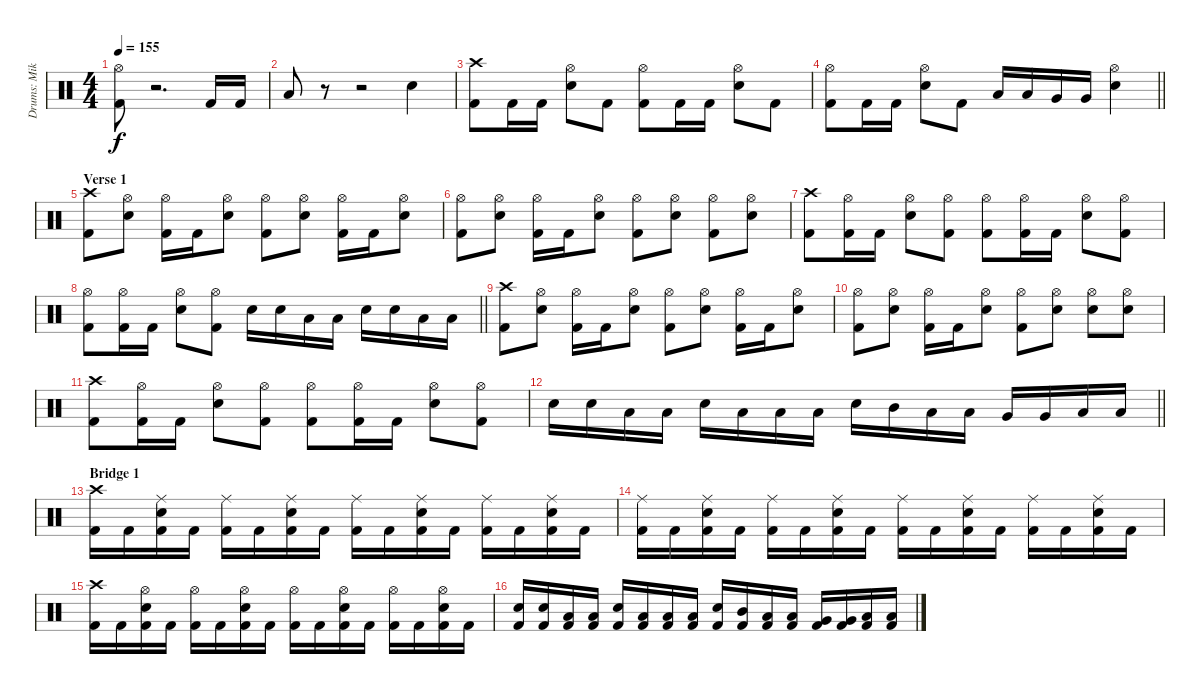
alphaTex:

\track ("Drums: Mikko Korsbäck" "Drums: Mik") {instrument percussion}
\staff {score}
\articulation defaults
\ts (4 4)
\tempo 155
\clef neutral
\ks aminor
("Hi-Hat (open)" "Kick (hit) 2").8{dy f} r.2{d} "Kick (hit) 2".16 "Kick (hit) 2".16 |
"Low Floor Tom (hit)".8 r.8 r.2 "Electric Snare (hit)".4 |
("Crash high (hit)" "Kick (hit) 2").8 "Kick (hit) 2".16 "Kick (hit) 2".16 ("Hi-Hat (open)" "Electric Snare (hit)").8 "Kick (hit) 2".8 ("Hi-Hat (open)" "Kick (hit) 2").8 "Kick (hit) 2".16 "Kick (hit) 2".16 ("Hi-Hat (open)" "Electric Snare (hit)").8 "Kick (hit) 2".8 |
\barLineRight lightlight
("Hi-Hat (open)" "Kick (hit) 2").8 "Kick (hit) 2".16 "Kick (hit) 2".16 ("Hi-Hat (open)" "Electric Snare (hit)").8 "Kick (hit) 2".8 "Low Tom (hit)".16 "Low Tom (hit)".16 "Very Low Tom (hit)".16 "Very Low Tom (hit)".16 ("Hi-Hat (open)" "Electric Snare (hit)").4 |
\section ("" "Verse 1")
("Crash high (hit)" "Kick (hit) 2").8 ("Hi-Hat (open)" "Electric Snare (hit)").8 ("Hi-Hat (open)" "Kick (hit) 2").16 "Kick (hit) 2".16 ("Hi-Hat (open)" "Electric Snare (hit)").8 ("Hi-Hat (open)" "Kick (hit) 2").8 ("Hi-Hat (open)" "Electric Snare (hit)").8 ("Hi-Hat (open)" "Kick (hit) 2").16 "Kick (hit) 2".16 ("Hi-Hat (open)" "Electric Snare (hit)").8 |
("Hi-Hat (open)" "Kick (hit) 2").8 ("Hi-Hat (open)" "Electric Snare (hit)").8 ("Hi-Hat (open)" "Kick (hit) 2").16 "Kick (hit) 2".16 ("Hi-Hat (open)" "Electric Snare (hit)").8 ("Hi-Hat (open)" "Kick (hit) 2").8 ("Hi-Hat (open)" "Electric Snare (hit)").8 ("Hi-Hat (open)" "Kick (hit) 2").8 ("Hi-Hat (open)" "Electric Snare (hit)").8 |
("Crash high (hit)" "Kick (hit) 2").8 ("Hi-Hat (open)" "Kick (hit) 2").16 "Kick (hit) 2".16 ("Hi-Hat (open)" "Electric Snare (hit)").8 ("Hi-Hat (open)" "Kick (hit) 2").8 ("Hi-Hat (open)" "Kick (hit) 2").8 ("Hi-Hat (open)" "Kick (hit) 2").16 "Kick (hit) 2".16 ("Hi-Hat (open)" "Electric Snare (hit)").8 ("Hi-Hat (open)" "Kick (hit) 2").8 |
\barLineRight lightlight
("Hi-Hat (open)" "Kick (hit) 2").8 ("Hi-Hat (open)" "Kick (hit) 2").16 "Kick (hit) 2".16 ("Hi-Hat (open)" "Electric Snare (hit)").8 ("Hi-Hat (open)" "Kick (hit) 2").8 "Electric Snare (hit)".16 "Electric Snare (hit)".16 "Low Tom (hit)".16 "Low Tom (hit)".16 "Electric Snare (hit)".16 "Electric Snare (hit)".16 "Low Tom (hit)".16 "Low Tom (hit)".16 |
("Crash high (hit)" "Kick (hit) 2").8 ("Hi-Hat (open)" "Electric Snare (hit)").8 ("Hi-Hat (open)" "Kick (hit) 2").16 "Kick (hit) 2".16 ("Hi-Hat (open)" "Electric Snare (hit)").8 ("Hi-Hat (open)" "Kick (hit) 2").8 ("Hi-Hat (open)" "Electric Snare (hit)").8 ("Hi-Hat (open)" "Kick (hit) 2").16 "Kick (hit) 2".16 ("Hi-Hat (open)" "Electric Snare (hit)").8 |
("Hi-Hat (open)" "Kick (hit) 2").8 ("Hi-Hat (open)" "Electric Snare (hit)").8 ("Hi-Hat (open)" "Kick (hit) 2").16 "Kick (hit) 2".16 ("Hi-Hat (open)" "Electric Snare (hit)").8 ("Hi-Hat (open)" "Kick (hit) 2").8 ("Hi-Hat (open)" "Electric Snare (hit)").8 ("Hi-Hat (open)" "Electric Snare (hit)").8 ("Hi-Hat (open)" "Electric Snare (hit)").8 |
("Crash high (hit)" "Kick (hit) 2").8 ("Hi-Hat (open)" "Kick (hit) 2").16 "Kick (hit) 2".16 ("Hi-Hat (open)" "Electric Snare (hit)").8 ("Hi-Hat (open)" "Kick (hit) 2").8 ("Hi-Hat (open)" "Kick (hit) 2").8 ("Hi-Hat (open)" "Kick (hit) 2").16 "Kick (hit) 2".16 ("Hi-Hat (open)" "Electric Snare (hit)").8 ("Hi-Hat (open)" "Kick (hit) 2").8 |
\barLineRight lightlight "Electric Snare (hit)".16 "Electric Snare (hit)".16 "Low Tom (hit)".16 "Low Tom (hit)".16 "Electric Snare (hit)".16 "Low Tom (hit)".16 "Low Tom (hit)".16 "Low Tom (hit)".16 "Electric Snare (hit)".16 "Mid Tom (hit)".16 "Low Tom (hit)".16 "Low Tom (hit)".16 "Very Low Tom (hit)".16 "Very Low Tom (hit)".16 "Low Floor Tom (hit)".16 "Low Floor Tom (hit)".16
|
\section ("" "Bridge 1")
("Crash high (hit)" "Kick (hit) 2").16 "Kick (hit) 2".16 ("Ride (middle)" "Electric Snare (hit)" "Kick (hit) 2").16 "Kick (hit) 2".16 ("Ride (middle)" "Kick (hit) 2").16 "Kick (hit) 2".16 ("Ride (middle)" "Electric Snare (hit)" "Kick (hit) 2").16 "Kick (hit) 2".16 ("Ride (middle)" "Kick (hit) 2").16 "Kick (hit) 2".16 ("Ride (middle)" "Electric Snare (hit)" "Kick (hit) 2").16 "Kick (hit) 2".16 ("Ride (middle)" "Kick (hit) 2").16 "Kick (hit) 2".16 ("Ride (middle)" "Electric Snare (hit)" "Kick (hit) 2").16 "Kick (hit) 2".16 |
("Ride (middle)" "Kick (hit) 2").16 "Kick (hit) 2".16 ("Ride (middle)" "Electric Snare (hit)" "Kick (hit) 2").16 "Kick (hit) 2".16 ("Ride (middle)" "Kick (hit) 2").16 "Kick (hit) 2".16 ("Ride (middle)" "Electric Snare (hit)" "Kick (hit) 2").16 "Kick (hit) 2".16 ("Ride (middle)" "Kick (hit) 2").16 "Kick (hit) 2".16 ("Ride (middle)" "Electric Snare (hit)" "Kick (hit) 2").16 "Kick (hit) 2".16 ("Ride (middle)" "Kick (hit) 2").16 "Kick (hit) 2".16 ("Ride (middle)" "Electric Snare (hit)" "Kick (hit) 2").16 "Kick (hit) 2".16 |
("Crash high (hit)" "Kick (hit) 2").16 "Kick (hit) 2".16 ("Hi-Hat (open)" "Electric Snare (hit)" "Kick (hit) 2").16 "Kick (hit) 2".16 ("Hi-Hat (open)" "Kick (hit) 2").16 "Kick (hit) 2".16 ("Hi-Hat (open)" "Electric Snare (hit)" "Kick (hit) 2").16 "Kick (hit) 2".16 ("Hi-Hat (open)" "Kick (hit) 2").16 "Kick (hit) 2".16 ("Hi-Hat (open)" "Electric Snare (hit)" "Kick (hit) 2").16 "Kick (hit) 2".16 ("Hi-Hat (open)" "Kick (hit) 2").16 "Kick (hit) 2".16 ("Hi-Hat (open)" "Electric Snare (hit)" "Kick (hit) 2").16 "Kick (hit) 2".16 |
("Electric Snare (hit)" "Kick (hit) 2").16 ("Electric Snare (hit)" "Kick (hit) 2").16 ("Low Tom (hit)" "Kick (hit) 2").16 ("Low Tom (hit)" "Kick (hit) 2").16 ("Electric Snare (hit)" "Kick (hit) 2").16 ("Low Tom (hit)" "Kick (hit) 2").16 ("Low Tom (hit)" "Kick (hit) 2").16 ("Low Tom (hit)" "Kick (hit) 2").16 ("Electric Snare (hit)" "Kick (hit) 2").16 ("Mid Tom (hit)" "Kick (hit) 2").16 ("Low Tom (hit)" "Kick (hit) 2").16 ("Low Tom (hit)" "Kick (hit) 2").16 ("Very Low Tom (hit)" "Kick (hit) 2").16 ("Very Low Tom (hit)" "Kick (hit) 2").16 ("Low Floor Tom (hit)" "Kick (hit) 2").16 ("Low Floor Tom (hit)" "Kick (hit) 2").16
